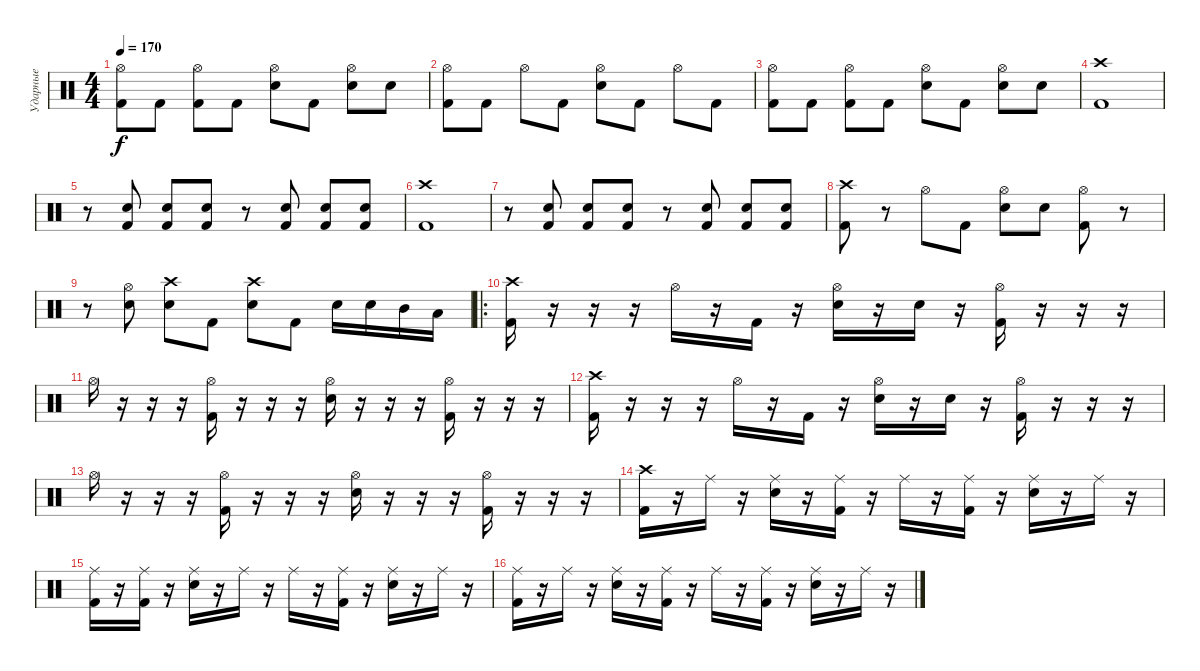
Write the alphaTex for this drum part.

\track ("Ударные" "Ударные") {instrument percussion}
\staff {score}
\articulation defaults
\ts (4 4)
\tempo 170
\clef neutral
\ks c
("Hi-Hat (open)" "Kick (hit) 2").8{dy f} "Kick (hit) 2".8 ("Hi-Hat (open)" "Kick (hit) 2").8 "Kick (hit) 2".8 ("Hi-Hat (open)" "Electric Snare (hit)").8 "Kick (hit) 2".8 ("Hi-Hat (open)" "Electric Snare (hit)").8 "Electric Snare (hit)".8 |
("Hi-Hat (open)" "Kick (hit) 2").8 "Kick (hit) 2".8 "Hi-Hat (open)".8 "Kick (hit) 2".8 ("Hi-Hat (open)" "Electric Snare (hit)").8 "Kick (hit) 2".8 "Hi-Hat (open)".8 "Kick (hit) 2".8 |
("Hi-Hat (open)" "Kick (hit) 2").8 "Kick (hit) 2".8 ("Hi-Hat (open)" "Kick (hit) 2").8 "Kick (hit) 2".8 ("Hi-Hat (open)" "Electric Snare (hit)").8 "Kick (hit) 2".8 ("Hi-Hat (open)" "Electric Snare (hit)").8 "Electric Snare (hit)".8 |
("Crash high (hit)" "Kick (hit) 2").1 |
r.8 ("Electric Snare (hit)" "Kick (hit) 2").8 ("Electric Snare (hit)" "Kick (hit) 2").8 ("Electric Snare (hit)" "Kick (hit) 2").8 r.8 ("Electric Snare (hit)" "Kick (hit) 2").8 ("Electric Snare (hit)" "Kick (hit) 2").8 ("Electric Snare (hit)" "Kick (hit) 2").8 |
("Crash high (hit)" "Kick (hit) 2").1 |
r.8 ("Electric Snare (hit)" "Kick (hit) 2").8 ("Electric Snare (hit)" "Kick (hit) 2").8 ("Electric Snare (hit)" "Kick (hit) 2").8 r.8 ("Electric Snare (hit)" "Kick (hit) 2").8 ("Electric Snare (hit)" "Kick (hit) 2").8 ("Electric Snare (hit)" "Kick (hit) 2").8 |
("Crash high (hit)" "Kick (hit) 2").8 r.8 "Hi-Hat (open)".8 "Kick (hit) 2".8 ("Hi-Hat (open)" "Electric Snare (hit)").8 "Electric Snare (hit)".8 ("Hi-Hat (open)" "Kick (hit) 2").8 r.8 |
r.8 ("Hi-Hat (open)" "Electric Snare (hit)").8 ("Crash high (hit)" "Electric Snare (hit)").8 "Kick (hit) 2".8 ("Crash high (hit)" "Electric Snare (hit)").8 "Kick (hit) 2".8 "Electric Snare (hit)".16 "Electric Snare (hit)".16 "Mid Tom (hit)".16 "Low Tom (hit)".16 |
\ro
("Crash high (hit)" "Kick (hit) 2").16 r.16 r.16 r.16 "Hi-Hat (open)".16 r.16 "Kick (hit) 2".16 r.16 ("Hi-Hat (open)" "Electric Snare (hit)").16 r.16 "Electric Snare (hit)".16 r.16 ("Hi-Hat (open)" "Kick (hit) 2").16 r.16 r.16 r.16 |
"Hi-Hat (open)".16 r.16 r.16 r.16 ("Hi-Hat (open)" "Kick (hit) 2").16 r.16 r.16 r.16 ("Hi-Hat (open)" "Electric Snare (hit)").16 r.16 r.16 r.16 ("Hi-Hat (open)" "Kick (hit) 2").16 r.16 r.16 r.16 |
("Crash high (hit)" "Kick (hit) 2").16 r.16 r.16 r.16 "Hi-Hat (open)".16 r.16 "Kick (hit) 2".16 r.16 ("Hi-Hat (open)" "Electric Snare (hit)").16 r.16 "Electric Snare (hit)".16 r.16 ("Hi-Hat (open)" "Kick (hit) 2").16 r.16 r.16 r.16 |
"Hi-Hat (open)".16 r.16 r.16 r.16 ("Hi-Hat (open)" "Kick (hit) 2").16 r.16 r.16 r.16 ("Hi-Hat (open)" "Electric Snare (hit)").16 r.16 r.16 r.16 ("Hi-Hat (open)" "Kick (hit) 2").16 r.16 r.16 r.16 |
("Crash high (hit)" "Kick (hit) 2").16 r.16 "Ride (middle)".16 r.16 ("Ride (middle)" "Electric Snare (hit)").16 r.16 ("Ride (middle)" "Kick (hit) 2").16 r.16 "Ride (middle)".16 r.16 ("Ride (middle)" "Kick (hit) 2").16 r.16 ("Ride (middle)" "Electric Snare (hit)").16 r.16 "Ride (middle)".16 r.16 |
("Ride (middle)" "Kick (hit) 2").16 r.16 ("Ride (middle)" "Kick (hit) 2").16 r.16 ("Ride (middle)" "Electric Snare (hit)").16 r.16 "Ride (middle)".16 r.16 "Ride (middle)".16 r.16 ("Ride (middle)" "Kick (hit) 2").16 r.16 ("Ride (middle)" "Electric Snare (hit)").16 r.16 "Ride (middle)".16 r.16 |
("Ride (middle)" "Kick (hit) 2").16 r.16 "Ride (middle)".16 r.16 ("Ride (middle)" "Electric Snare (hit)").16 r.16 ("Ride (middle)" "Kick (hit) 2").16 r.16 "Ride (middle)".16 r.16 ("Ride (middle)" "Kick (hit) 2").16 r.16 ("Ride (middle)" "Electric Snare (hit)").16 r.16 "Ride (middle)".16 r.16
